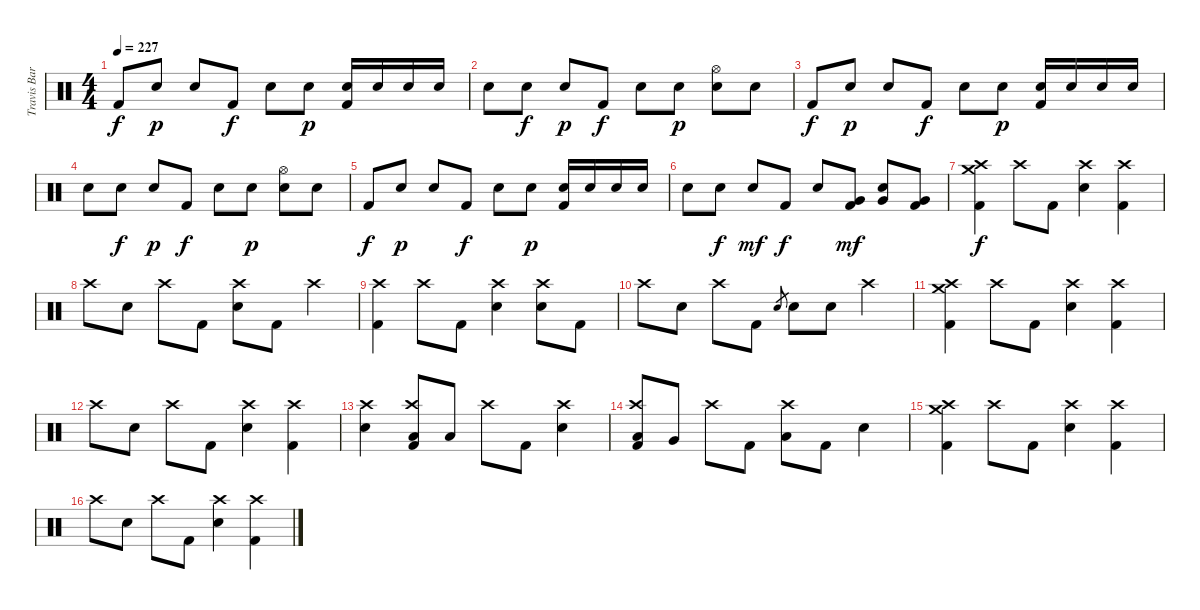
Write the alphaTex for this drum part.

\track ("Travis Barker - Drum" "Travis Bar") {instrument percussion}
\staff {score}
\articulation defaults
\ts (4 4)
\tempo 227
\clef neutral
\ks c "Kick (hit) 2".8{dy f} "Electric Snare (hit)".8{dy p} "Electric Snare (hit)".8 "Kick (hit) 2".8{dy f} "Electric Snare (hit)".8 "Electric Snare (hit)".8{dy p}
("Electric Snare (hit)" "Kick (hit) 2").16 "Electric Snare (hit)".16 "Electric Snare (hit)".16 "Electric Snare (hit)".16 |
"Electric Snare (hit)".8 "Electric Snare (hit)".8{dy f} "Electric Snare (hit)".8{dy p} "Kick (hit) 2".8{dy f} "Electric Snare (hit)".8 "Electric Snare (hit)".8{dy p} ("Hi-Hat (open)" "Electric Snare (hit)").8 "Electric Snare (hit)".8 |
"Kick (hit) 2".8{dy f} "Electric Snare (hit)".8{dy p} "Electric Snare (hit)".8 "Kick (hit) 2".8{dy f} "Electric Snare (hit)".8 "Electric Snare (hit)".8{dy p} ("Electric Snare (hit)" "Kick (hit) 2").16 "Electric Snare (hit)".16 "Electric Snare (hit)".16 "Electric Snare (hit)".16 |
"Electric Snare (hit)".8 "Electric Snare (hit)".8{dy f} "Electric Snare (hit)".8{dy p} "Kick (hit) 2".8{dy f} "Electric Snare (hit)".8 "Electric Snare (hit)".8{dy p} ("Hi-Hat (open)" "Electric Snare (hit)").8 "Electric Snare (hit)".8 |
"Kick (hit) 2".8{dy f} "Electric Snare (hit)".8{dy p} "Electric Snare (hit)".8 "Kick (hit) 2".8{dy f} "Electric Snare (hit)".8 "Electric Snare (hit)".8{dy p} ("Electric Snare (hit)" "Kick (hit) 2").16 "Electric Snare (hit)".16 "Electric Snare (hit)".16 "Electric Snare (hit)".16 |
"Electric Snare (hit)".8 "Electric Snare (hit)".8{dy f} "Electric Snare (hit)".8{dy mf} "Kick (hit) 2".8{dy f} "Electric Snare (hit)".8 ("Kick (hit) 2" "Very Low Tom (hit)").8{dy mf} ("Electric Snare (hit)" "Very Low Tom (hit)").8 ("Kick (hit) 2" "Very Low Tom (hit)").8 |
("Crash medium (hit)" "Crash high (hit)" "Kick (hit) 2").4{dy f} "Crash high (hit)".8 "Kick (hit) 2".8 ("Crash high (hit)" "Electric Snare (hit)").4 ("Crash high (hit)" "Kick (hit) 2").4 |
"Crash high (hit)".8 "Electric Snare (hit)".8 "Crash high (hit)".8 "Kick (hit) 2".8 ("Crash high (hit)" "Electric Snare (hit)").8 "Kick (hit) 2".8 "Crash high (hit)".4 |
("Crash high (hit)" "Kick (hit) 2").4 "Crash high (hit)".8 "Kick (hit) 2".8 ("Crash high (hit)" "Electric Snare (hit)").4 ("Crash high (hit)" "Electric Snare (hit)").8 "Kick (hit) 2".8 |
"Crash high (hit)".8 "Electric Snare (hit)".8 "Crash high (hit)".8 "Kick (hit) 2".8 "Electric Snare (hit)".8{gr} "Electric Snare (hit)".8 "Electric Snare (hit)".8 "Crash high (hit)".4 |
("Crash medium (hit)" "Crash high (hit)" "Kick (hit) 2").4 "Crash high (hit)".8 "Kick (hit) 2".8 ("Crash high (hit)" "Electric Snare (hit)").4 ("Crash high (hit)" "Kick (hit) 2").4 |
"Crash high (hit)".8 "Electric Snare (hit)".8 "Crash high (hit)".8 "Kick (hit) 2".8 ("Crash high (hit)" "Electric Snare (hit)").4 ("Crash high (hit)" "Kick (hit) 2").4 |
("Crash high (hit)" "Electric Snare (hit)").4 ("Crash high (hit)" "Low Tom (hit)" "Kick (hit) 2").8 "Low Tom (hit)".8 "Crash high (hit)".8 "Kick (hit) 2".8 ("Crash high (hit)" "Electric Snare (hit)").4 |
("Crash high (hit)" "Low Tom (hit)" "Kick (hit) 2").8 "Very Low Tom (hit)".8 "Crash high (hit)".8 "Kick (hit) 2".8 ("Crash high (hit)" "Low Floor Tom (hit)").8 "Kick (hit) 2".8 "Electric Snare (hit)".4 |
("Crash medium (hit)" "Crash high (hit)" "Kick (hit) 2").4 "Crash high (hit)".8 "Kick (hit) 2".8 ("Crash high (hit)" "Electric Snare (hit)").4 ("Crash high (hit)" "Kick (hit) 2").4 |
"Crash high (hit)".8 "Electric Snare (hit)".8 "Crash high (hit)".8 "Kick (hit) 2".8 ("Crash high (hit)" "Electric Snare (hit)").4 ("Crash high (hit)" "Kick (hit) 2").4
